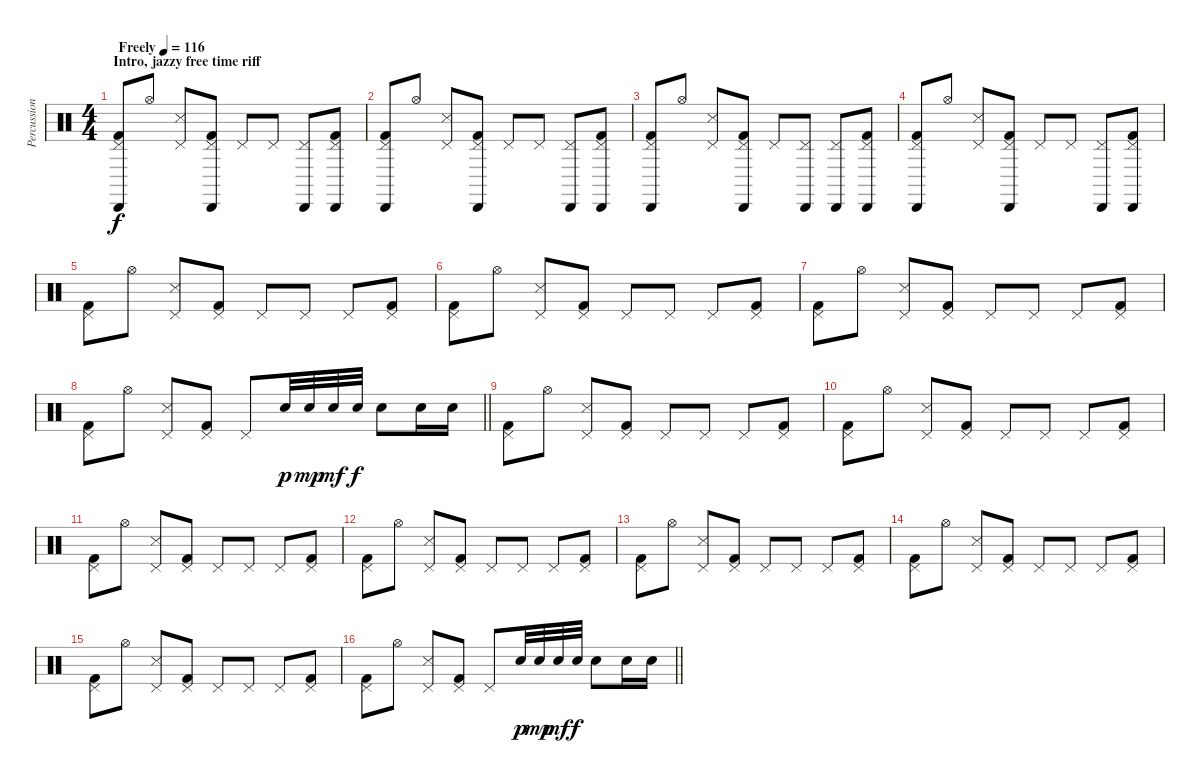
\track ("Percussion" "Percussion") {instrument percussion}
\staff {score}
\articulation defaults
\ts (4 4)
\section ("" "Intro, jazzy free time riff")
\tempo (116 "Freely")
\tempo 101
\tempo (116 "Freely")
\clef neutral
\ks c
("Cabasa (hit)" "Pedal Hi-Hat (hit)" "Kick (hit) 2").8{dy f} "Hi-Hat (open)".8 ("Pedal Hi-Hat (hit)" "Snare (side stick) 3").8 ("Cabasa (hit)" "Pedal Hi-Hat (hit)" "Kick (hit) 2").8 "Pedal Hi-Hat (hit)".8 "Pedal Hi-Hat (hit)".8 ("Cabasa (hit)" "Pedal Hi-Hat (hit)").8 ("Cabasa (hit)" "Pedal Hi-Hat (hit)" "Kick (hit) 2").8 |
("Cabasa (hit)" "Pedal Hi-Hat (hit)" "Kick (hit) 2").8 "Hi-Hat (open)".8 ("Pedal Hi-Hat (hit)" "Snare (side stick) 3").8 ("Cabasa (hit)" "Pedal Hi-Hat (hit)" "Kick (hit) 2").8 "Pedal Hi-Hat (hit)".8 "Pedal Hi-Hat (hit)".8 ("Cabasa (hit)" "Pedal Hi-Hat (hit)").8 ("Cabasa (hit)" "Pedal Hi-Hat (hit)" "Kick (hit) 2").8 |
("Cabasa (hit)" "Pedal Hi-Hat (hit)" "Kick (hit) 2").8 "Hi-Hat (open)".8 ("Pedal Hi-Hat (hit)" "Snare (side stick) 3").8 ("Cabasa (hit)" "Pedal Hi-Hat (hit)" "Kick (hit) 2").8 "Pedal Hi-Hat (hit)".8 ("Cabasa (hit)" "Pedal Hi-Hat (hit)").8 ("Cabasa (hit)" "Pedal Hi-Hat (hit)").8 ("Cabasa (hit)" "Pedal Hi-Hat (hit)" "Kick (hit) 2").8 |
("Cabasa (hit)" "Pedal Hi-Hat (hit)" "Kick (hit) 2").8 "Hi-Hat (open)".8 ("Pedal Hi-Hat (hit)" "Snare (side stick) 3").8 ("Cabasa (hit)" "Pedal Hi-Hat (hit)" "Kick (hit) 2").8 "Pedal Hi-Hat (hit)".8 "Pedal Hi-Hat (hit)".8 ("Cabasa (hit)" "Pedal Hi-Hat (hit)").8 ("Cabasa (hit)" "Pedal Hi-Hat (hit)" "Kick (hit) 2").8 |
("Pedal Hi-Hat (hit)" "Kick (hit) 2").8 "Hi-Hat (open)".8 ("Pedal Hi-Hat (hit)" "Snare (side stick) 3").8 ("Pedal Hi-Hat (hit)" "Kick (hit) 2").8 "Pedal Hi-Hat (hit)".8 "Pedal Hi-Hat (hit)".8 "Pedal Hi-Hat (hit)".8 ("Pedal Hi-Hat (hit)" "Kick (hit) 2").8 |
("Pedal Hi-Hat (hit)" "Kick (hit) 2").8 "Hi-Hat (open)".8 ("Pedal Hi-Hat (hit)" "Snare (side stick) 3").8 ("Pedal Hi-Hat (hit)" "Kick (hit) 2").8 "Pedal Hi-Hat (hit)".8 "Pedal Hi-Hat (hit)".8 "Pedal Hi-Hat (hit)".8 ("Pedal Hi-Hat (hit)" "Kick (hit) 2").8 |
("Pedal Hi-Hat (hit)" "Kick (hit) 2").8 "Hi-Hat (open)".8 ("Pedal Hi-Hat (hit)" "Snare (side stick) 3").8 ("Pedal Hi-Hat (hit)" "Kick (hit) 2").8 "Pedal Hi-Hat (hit)".8 "Pedal Hi-Hat (hit)".8 "Pedal Hi-Hat (hit)".8 ("Pedal Hi-Hat (hit)" "Kick (hit) 2").8 |
\barLineRight lightlight
("Pedal Hi-Hat (hit)" "Kick (hit) 2").8 "Hi-Hat (open)".8 ("Pedal Hi-Hat (hit)" "Snare (side stick) 3").8 ("Pedal Hi-Hat (hit)" "Kick (hit) 2").8 "Pedal Hi-Hat (hit)".8 "Snare (hit) 2".32{dy p} "Snare (hit) 2".32{dy mp} "Snare (hit) 2".32{dy mf} "Snare (hit) 2".32{dy f} "Snare (hit) 2".8 "Snare (hit) 2".16 "Snare (hit) 2".16 |
("Pedal Hi-Hat (hit)" "Kick (hit) 2").8 "Hi-Hat (open)".8 ("Pedal Hi-Hat (hit)" "Snare (side stick) 3").8 ("Pedal Hi-Hat (hit)" "Kick (hit) 2").8 "Pedal Hi-Hat (hit)".8 "Pedal Hi-Hat (hit)".8 "Pedal Hi-Hat (hit)".8 ("Pedal Hi-Hat (hit)" "Kick (hit) 2").8 |
("Pedal Hi-Hat (hit)" "Kick (hit) 2").8 "Hi-Hat (open)".8 ("Pedal Hi-Hat (hit)" "Snare (side stick) 3").8 ("Pedal Hi-Hat (hit)" "Kick (hit) 2").8 "Pedal Hi-Hat (hit)".8 "Pedal Hi-Hat (hit)".8 "Pedal Hi-Hat (hit)".8 ("Pedal Hi-Hat (hit)" "Kick (hit) 2").8 |
("Pedal Hi-Hat (hit)" "Kick (hit) 2").8 "Hi-Hat (open)".8 ("Pedal Hi-Hat (hit)" "Snare (side stick) 3").8 ("Pedal Hi-Hat (hit)" "Kick (hit) 2").8 "Pedal Hi-Hat (hit)".8 "Pedal Hi-Hat (hit)".8 "Pedal Hi-Hat (hit)".8 ("Pedal Hi-Hat (hit)" "Kick (hit) 2").8 |
("Pedal Hi-Hat (hit)" "Kick (hit) 2").8 "Hi-Hat (open)".8 ("Pedal Hi-Hat (hit)" "Snare (side stick) 3").8 ("Pedal Hi-Hat (hit)" "Kick (hit) 2").8 "Pedal Hi-Hat (hit)".8 "Pedal Hi-Hat (hit)".8 "Pedal Hi-Hat (hit)".8 ("Pedal Hi-Hat (hit)" "Kick (hit) 2").8 |
("Pedal Hi-Hat (hit)" "Kick (hit) 2").8 "Hi-Hat (open)".8 ("Pedal Hi-Hat (hit)" "Snare (side stick) 3").8 ("Pedal Hi-Hat (hit)" "Kick (hit) 2").8 "Pedal Hi-Hat (hit)".8 "Pedal Hi-Hat (hit)".8 "Pedal Hi-Hat (hit)".8 ("Pedal Hi-Hat (hit)" "Kick (hit) 2").8 |
("Pedal Hi-Hat (hit)" "Kick (hit) 2").8 "Hi-Hat (open)".8 ("Pedal Hi-Hat (hit)" "Snare (side stick) 3").8 ("Pedal Hi-Hat (hit)" "Kick (hit) 2").8 "Pedal Hi-Hat (hit)".8 "Pedal Hi-Hat (hit)".8 "Pedal Hi-Hat (hit)".8 ("Pedal Hi-Hat (hit)" "Kick (hit) 2").8 |
("Pedal Hi-Hat (hit)" "Kick (hit) 2").8 "Hi-Hat (open)".8 ("Pedal Hi-Hat (hit)" "Snare (side stick) 3").8 ("Pedal Hi-Hat (hit)" "Kick (hit) 2").8 "Pedal Hi-Hat (hit)".8 "Pedal Hi-Hat (hit)".8 "Pedal Hi-Hat (hit)".8 ("Pedal Hi-Hat (hit)" "Kick (hit) 2").8 |
\barLineRight lightlight
("Pedal Hi-Hat (hit)" "Kick (hit) 2").8 "Hi-Hat (open)".8 ("Pedal Hi-Hat (hit)" "Snare (side stick) 3").8 ("Pedal Hi-Hat (hit)" "Kick (hit) 2").8 "Pedal Hi-Hat (hit)".8 "Snare (hit) 2".32{dy p} "Snare (hit) 2".32{dy mp} "Snare (hit) 2".32{dy mf} "Snare (hit) 2".32{dy f} "Snare (hit) 2".8 "Snare (hit) 2".16 "Snare (hit) 2".16
